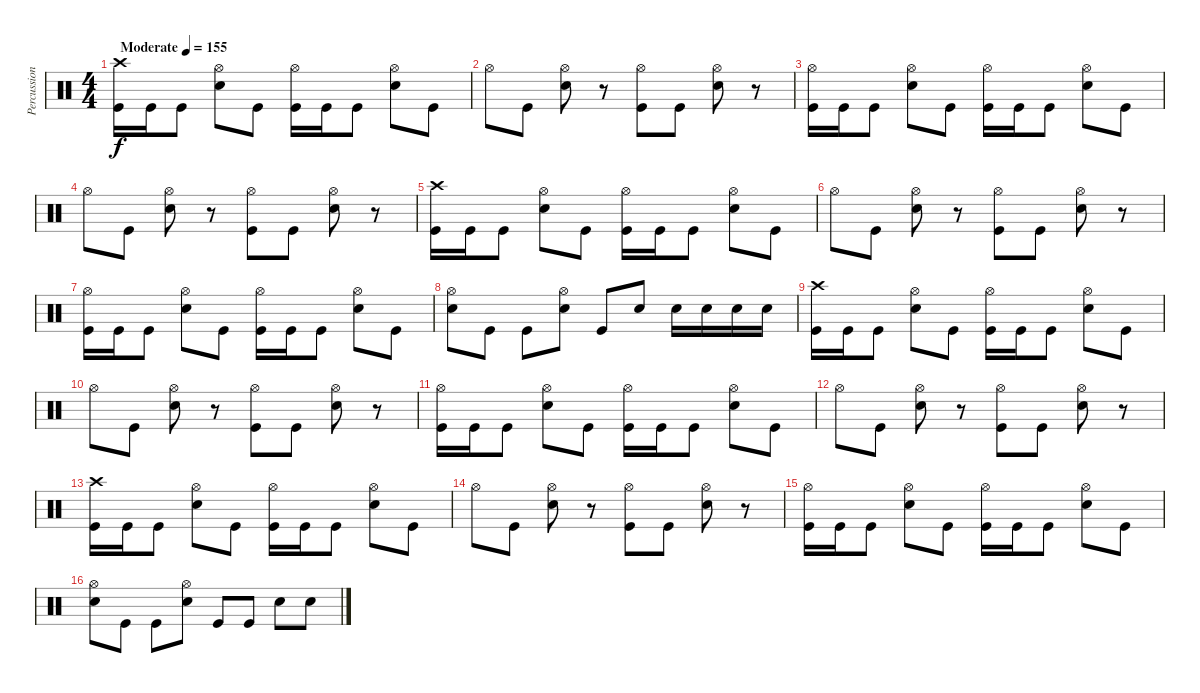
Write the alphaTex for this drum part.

\track ("Percussion" "Percussion") {instrument percussion}
\staff {score}
\articulation defaults
\ts (4 4)
\tempo (155 "Moderate")
\clef neutral
\ks c
("Kick (hit)" "Crash high (hit)").16{dy f} "Kick (hit)".16 "Kick (hit)".8 ("Snare (hit) 2" "Hi-Hat (open)").8 "Kick (hit)".8 ("Kick (hit)" "Hi-Hat (open)").16 "Kick (hit)".16 "Kick (hit)".8 ("Snare (hit) 2" "Hi-Hat (open)").8 "Kick (hit)".8 |
"Hi-Hat (open)".8 "Kick (hit)".8 ("Snare (hit) 2" "Hi-Hat (open)").8 r.8 ("Kick (hit)" "Hi-Hat (open)").8 "Kick (hit)".8 ("Snare (hit) 2" "Hi-Hat (open)").8 r.8 |
("Kick (hit)" "Hi-Hat (open)").16 "Kick (hit)".16 "Kick (hit)".8 ("Snare (hit) 2" "Hi-Hat (open)").8 "Kick (hit)".8 ("Kick (hit)" "Hi-Hat (open)").16 "Kick (hit)".16 "Kick (hit)".8 ("Snare (hit) 2" "Hi-Hat (open)").8 "Kick (hit)".8 |
"Hi-Hat (open)".8 "Kick (hit)".8 ("Snare (hit) 2" "Hi-Hat (open)").8 r.8 ("Kick (hit)" "Hi-Hat (open)").8 "Kick (hit)".8 ("Snare (hit) 2" "Hi-Hat (open)").8 r.8 |
("Kick (hit)" "Crash high (hit)").16 "Kick (hit)".16 "Kick (hit)".8 ("Snare (hit) 2" "Hi-Hat (open)").8 "Kick (hit)".8 ("Kick (hit)" "Hi-Hat (open)").16 "Kick (hit)".16 "Kick (hit)".8 ("Snare (hit) 2" "Hi-Hat (open)").8 "Kick (hit)".8 |
"Hi-Hat (open)".8 "Kick (hit)".8 ("Snare (hit) 2" "Hi-Hat (open)").8 r.8 ("Kick (hit)" "Hi-Hat (open)").8 "Kick (hit)".8 ("Snare (hit) 2" "Hi-Hat (open)").8 r.8 |
("Kick (hit)" "Hi-Hat (open)").16 "Kick (hit)".16 "Kick (hit)".8 ("Snare (hit) 2" "Hi-Hat (open)").8 "Kick (hit)".8 ("Kick (hit)" "Hi-Hat (open)").16 "Kick (hit)".16 "Kick (hit)".8 ("Snare (hit) 2" "Hi-Hat (open)").8 "Kick (hit)".8 |
("Hi-Hat (open)" "Snare (hit) 2").8 "Kick (hit)".8 "Kick (hit)".8 ("Snare (hit) 2" "Hi-Hat (open)").8 "Kick (hit)".8 "Snare (hit) 2".8 "Snare (hit) 2".16 "Snare (hit) 2".16 "Snare (hit) 2".16 "Snare (hit) 2".16 |
("Kick (hit)" "Crash high (hit)").16 "Kick (hit)".16 "Kick (hit)".8 ("Snare (hit) 2" "Hi-Hat (open)").8 "Kick (hit)".8 ("Kick (hit)" "Hi-Hat (open)").16 "Kick (hit)".16 "Kick (hit)".8 ("Snare (hit) 2" "Hi-Hat (open)").8 "Kick (hit)".8 |
"Hi-Hat (open)".8 "Kick (hit)".8 ("Snare (hit) 2" "Hi-Hat (open)").8 r.8 ("Kick (hit)" "Hi-Hat (open)").8 "Kick (hit)".8 ("Snare (hit) 2" "Hi-Hat (open)").8 r.8 |
("Kick (hit)" "Hi-Hat (open)").16 "Kick (hit)".16 "Kick (hit)".8 ("Snare (hit) 2" "Hi-Hat (open)").8 "Kick (hit)".8 ("Kick (hit)" "Hi-Hat (open)").16 "Kick (hit)".16 "Kick (hit)".8 ("Snare (hit) 2" "Hi-Hat (open)").8 "Kick (hit)".8 |
"Hi-Hat (open)".8 "Kick (hit)".8 ("Snare (hit) 2" "Hi-Hat (open)").8 r.8 ("Kick (hit)" "Hi-Hat (open)").8 "Kick (hit)".8 ("Snare (hit) 2" "Hi-Hat (open)").8 r.8 |
("Kick (hit)" "Crash high (hit)").16 "Kick (hit)".16 "Kick (hit)".8 ("Snare (hit) 2" "Hi-Hat (open)").8 "Kick (hit)".8 ("Kick (hit)" "Hi-Hat (open)").16 "Kick (hit)".16 "Kick (hit)".8 ("Snare (hit) 2" "Hi-Hat (open)").8 "Kick (hit)".8 |
"Hi-Hat (open)".8 "Kick (hit)".8 ("Snare (hit) 2" "Hi-Hat (open)").8 r.8 ("Kick (hit)" "Hi-Hat (open)").8 "Kick (hit)".8 ("Snare (hit) 2" "Hi-Hat (open)").8 r.8 |
("Kick (hit)" "Hi-Hat (open)").16 "Kick (hit)".16 "Kick (hit)".8 ("Snare (hit) 2" "Hi-Hat (open)").8 "Kick (hit)".8 ("Kick (hit)" "Hi-Hat (open)").16 "Kick (hit)".16 "Kick (hit)".8 ("Snare (hit) 2" "Hi-Hat (open)").8 "Kick (hit)".8 |
("Hi-Hat (open)" "Snare (hit) 2").8 "Kick (hit)".8 "Kick (hit)".8 ("Snare (hit) 2" "Hi-Hat (open)").8 "Kick (hit)".8 "Kick (hit)".8 "Snare (hit) 2".8 "Snare (hit) 2".8
